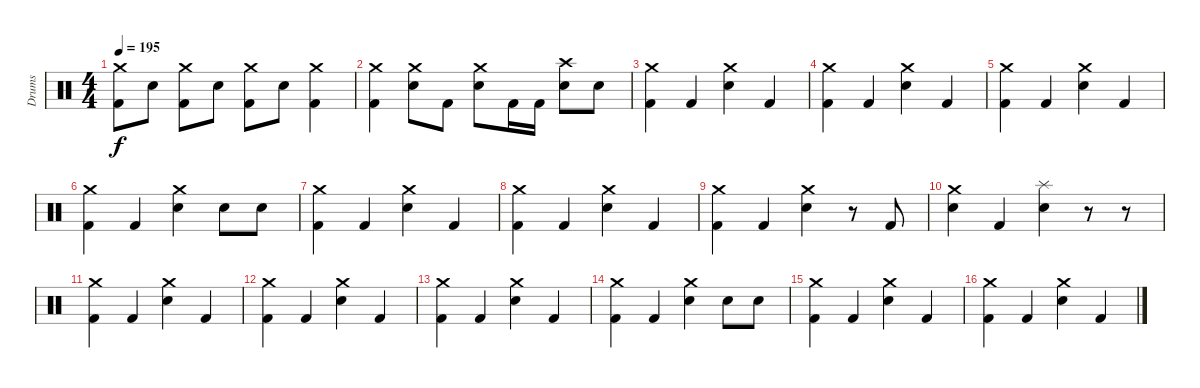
\track ("Drums" "Drums") {instrument percussion}
\staff {score}
\articulation defaults
\ts (4 4)
\tempo 195
\clef neutral
\ks c
("Crash medium (hit)" "Kick (hit) 2").8{dy f} "Electric Snare (hit)".8 ("Crash medium (hit)" "Kick (hit) 2").8 "Electric Snare (hit)".8 ("Crash medium (hit)" "Kick (hit) 2").8 "Electric Snare (hit)".8 ("Crash medium (hit)" "Kick (hit) 2").4 |
("Crash medium (hit)" "Kick (hit) 2").4 ("Crash medium (hit)" "Electric Snare (hit)").8 "Kick (hit) 2".8 ("Crash medium (hit)" "Electric Snare (hit)").8 "Kick (hit) 2".16 "Kick (hit) 2".16 ("Crash high (hit)" "Electric Snare (hit)").8 "Electric Snare (hit)".8 |
("Crash medium (hit)" "Kick (hit) 2").4 "Kick (hit) 2".4 ("Crash medium (hit)" "Electric Snare (hit)").4 "Kick (hit) 2".4 |
("Crash medium (hit)" "Kick (hit) 2").4 "Kick (hit) 2".4 ("Crash medium (hit)" "Electric Snare (hit)").4 "Kick (hit) 2".4 |
("Crash medium (hit)" "Kick (hit) 2").4 "Kick (hit) 2".4 ("Crash medium (hit)" "Electric Snare (hit)").4 "Kick (hit) 2".4 |
("Crash medium (hit)" "Kick (hit) 2").4 "Kick (hit) 2".4 ("Crash medium (hit)" "Electric Snare (hit)").4 "Electric Snare (hit)".8 "Electric Snare (hit)".8 |
("Crash medium (hit)" "Kick (hit) 2").4 "Kick (hit) 2".4 ("Crash medium (hit)" "Electric Snare (hit)").4 "Kick (hit) 2".4 |
("Crash medium (hit)" "Kick (hit) 2").4 "Kick (hit) 2".4 ("Crash medium (hit)" "Electric Snare (hit)").4 "Kick (hit) 2".4 |
("Crash medium (hit)" "Kick (hit) 2").4 "Kick (hit) 2".4 ("Crash medium (hit)" "Electric Snare (hit)").4 r.8 "Kick (hit) 2".8 |
("Crash medium (hit)" "Electric Snare (hit)").4 "Kick (hit) 2".4 ("Splash (hit)" "Electric Snare (hit)").4 r.8 r.8 |
("Crash medium (hit)" "Kick (hit) 2").4 "Kick (hit) 2".4 ("Crash medium (hit)" "Electric Snare (hit)").4 "Kick (hit) 2".4 |
("Crash medium (hit)" "Kick (hit) 2").4 "Kick (hit) 2".4 ("Crash medium (hit)" "Electric Snare (hit)").4 "Kick (hit) 2".4 |
("Crash medium (hit)" "Kick (hit) 2").4 "Kick (hit) 2".4 ("Crash medium (hit)" "Electric Snare (hit)").4 "Kick (hit) 2".4 |
("Crash medium (hit)" "Kick (hit) 2").4 "Kick (hit) 2".4 ("Crash medium (hit)" "Electric Snare (hit)").4 "Electric Snare (hit)".8 "Electric Snare (hit)".8 |
("Crash medium (hit)" "Kick (hit) 2").4 "Kick (hit) 2".4 ("Crash medium (hit)" "Electric Snare (hit)").4 "Kick (hit) 2".4 |
("Crash medium (hit)" "Kick (hit) 2").4 "Kick (hit) 2".4 ("Crash medium (hit)" "Electric Snare (hit)").4 "Kick (hit) 2".4
